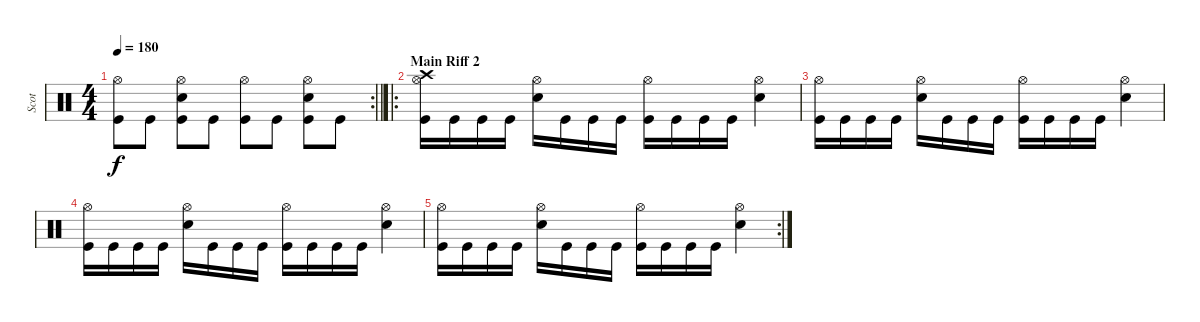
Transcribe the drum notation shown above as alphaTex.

\track ("Scot" "Scot") {instrument percussion}
\staff {score}
\articulation defaults
\rc 2
\ts (4 4)
\tempo 180
\clef neutral
\barLineRight lightlight
\ks c
("Hi-Hat (open)" "Kick (hit)").8{dy f} "Kick (hit)".8 ("Electric Snare (hit)" "Hi-Hat (open)" "Kick (hit)").8 "Kick (hit)".8 ("Hi-Hat (open)" "Kick (hit)").8 "Kick (hit)".8 ("Electric Snare (hit)" "Hi-Hat (open)" "Kick (hit)").8 "Kick (hit)".8 |
\ro
\section ("" "Main Riff 2")
("Crash high (hit)" "Hi-Hat (open)" "Kick (hit)").16 "Kick (hit)".16 "Kick (hit)".16 "Kick (hit)".16 ("Electric Snare (hit)" "Hi-Hat (open)").16 "Kick (hit)".16 "Kick (hit)".16 "Kick (hit)".16 ("Hi-Hat (open)" "Kick (hit)").16 "Kick (hit)".16 "Kick (hit)".16 "Kick (hit)".16 ("Electric Snare (hit)" "Hi-Hat (open)").4 |
("Hi-Hat (open)" "Kick (hit)").16 "Kick (hit)".16 "Kick (hit)".16 "Kick (hit)".16 ("Electric Snare (hit)" "Hi-Hat (open)").16 "Kick (hit)".16 "Kick (hit)".16 "Kick (hit)".16 ("Hi-Hat (open)" "Kick (hit)").16 "Kick (hit)".16 "Kick (hit)".16 "Kick (hit)".16 ("Electric Snare (hit)" "Hi-Hat (open)").4 |
("Hi-Hat (open)" "Kick (hit)").16 "Kick (hit)".16 "Kick (hit)".16 "Kick (hit)".16 ("Electric Snare (hit)" "Hi-Hat (open)").16 "Kick (hit)".16 "Kick (hit)".16 "Kick (hit)".16 ("Hi-Hat (open)" "Kick (hit)").16 "Kick (hit)".16 "Kick (hit)".16 "Kick (hit)".16 ("Electric Snare (hit)" "Hi-Hat (open)").4 |
\rc 2
("Hi-Hat (open)" "Kick (hit)").16 "Kick (hit)".16 "Kick (hit)".16 "Kick (hit)".16 ("Electric Snare (hit)" "Hi-Hat (open)").16 "Kick (hit)".16 "Kick (hit)".16 "Kick (hit)".16 ("Hi-Hat (open)" "Kick (hit)").16 "Kick (hit)".16 "Kick (hit)".16 "Kick (hit)".16 ("Electric Snare (hit)" "Hi-Hat (open)").4
